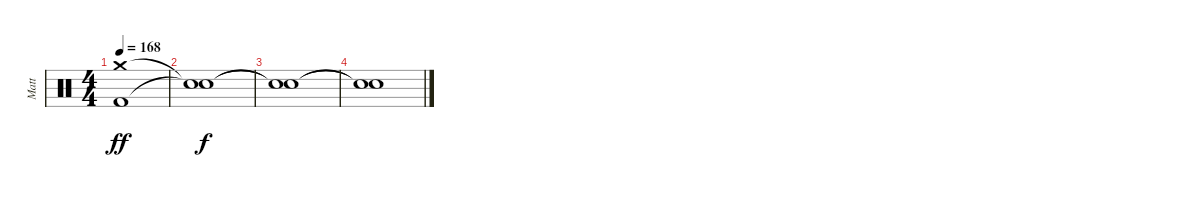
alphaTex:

\track ("Matt" "Matt") {instrument percussion}
\staff {score}
\articulation defaults
\ts (4 4)
\tempo 168
\clef neutral
\ks c
("Crash medium (hit)" "Kick (hit) 2").1{dy ff} |
("Snare (hit)"{t} "Snare (hit)"{t}).1{dy f} |
("Snare (hit)"{t} "Snare (hit)"{t}).1 |
("Snare (hit)"{t} "Snare (hit)"{t}).1
